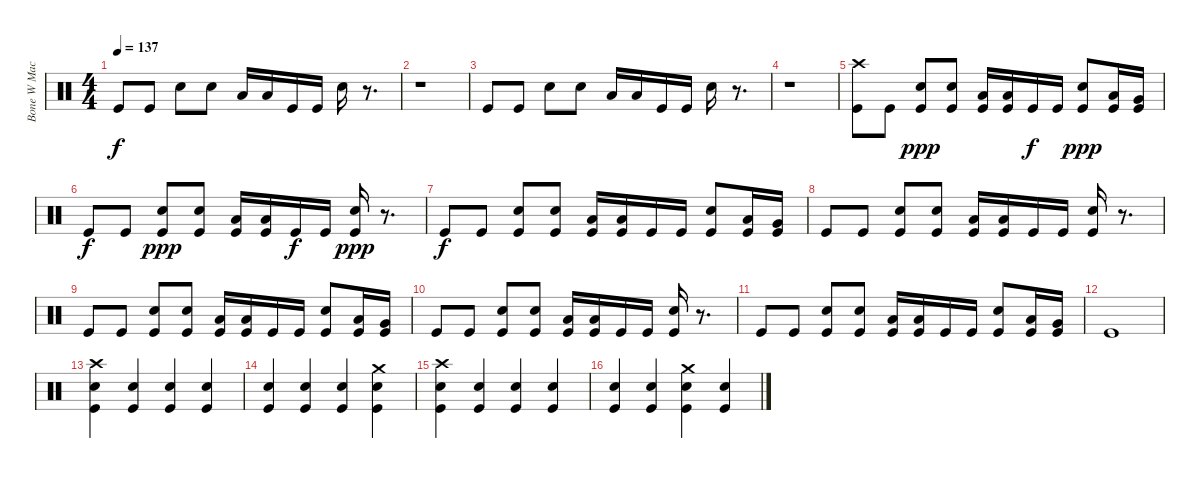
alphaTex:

\track ("Bone W Machine Drums" "Bone W Mac") {instrument percussion}
\staff {score}
\articulation defaults
\ts (4 4)
\tempo 137
\clef neutral
\ks c "Kick (hit)".8{dy f} "Kick (hit)".8 "Snare (hit) 2".8 "Snare (hit) 2".8 "Low Tom (hit)".16 "Low Tom (hit)".16 "Kick (hit)".16 "Kick (hit)".16 "Snare (hit) 2".16
r.8{d} |
r.1 |
"Kick (hit)".8 "Kick (hit)".8 "Snare (hit) 2".8 "Snare (hit) 2".8 "Low Tom (hit)".16 "Low Tom (hit)".16 "Kick (hit)".16 "Kick (hit)".16 "Snare (hit) 2".16 r.8{d} |
r.1 |
("Crash high (hit)" "Kick (hit)").8 "Kick (hit)".8 ("Snare (hit) 2" "Kick (hit)").8{dy ppp} ("Snare (hit) 2" "Kick (hit)").8 ("Low Tom (hit)" "Kick (hit)").16 ("Low Tom (hit)" "Kick (hit)").16 "Kick (hit)".16{dy f} "Kick (hit)".16 ("Snare (hit) 2" "Kick (hit)").8{dy ppp} ("Low Tom (hit)" "Kick (hit)").16 ("Very Low Tom (hit)" "Kick (hit)").16 |
"Kick (hit)".8{dy f} "Kick (hit)".8 ("Snare (hit) 2" "Kick (hit)").8{dy ppp} ("Snare (hit) 2" "Kick (hit)").8 ("Low Tom (hit)" "Kick (hit)").16 ("Low Tom (hit)" "Kick (hit)").16 "Kick (hit)".16{dy f} "Kick (hit)".16 ("Snare (hit) 2" "Kick (hit)").16{dy ppp} r.8{d} |
"Kick (hit)".8{dy f} "Kick (hit)".8 ("Snare (hit) 2" "Kick (hit)").8 ("Snare (hit) 2" "Kick (hit)").8 ("Low Tom (hit)" "Kick (hit)").16 ("Low Tom (hit)" "Kick (hit)").16 "Kick (hit)".16 "Kick (hit)".16 ("Snare (hit) 2" "Kick (hit)").8 ("Low Tom (hit)" "Kick (hit)").16 ("Very Low Tom (hit)" "Kick (hit)").16 |
"Kick (hit)".8 "Kick (hit)".8 ("Snare (hit) 2" "Kick (hit)").8 ("Snare (hit) 2" "Kick (hit)").8 ("Low Tom (hit)" "Kick (hit)").16 ("Low Tom (hit)" "Kick (hit)").16 "Kick (hit)".16 "Kick (hit)".16 ("Snare (hit) 2" "Kick (hit)").16 r.8{d} |
"Kick (hit)".8 "Kick (hit)".8 ("Snare (hit) 2" "Kick (hit)").8 ("Snare (hit) 2" "Kick (hit)").8 ("Low Tom (hit)" "Kick (hit)").16 ("Low Tom (hit)" "Kick (hit)").16 "Kick (hit)".16 "Kick (hit)".16 ("Snare (hit) 2" "Kick (hit)").8 ("Low Tom (hit)" "Kick (hit)").16 ("Very Low Tom (hit)" "Kick (hit)").16 |
"Kick (hit)".8 "Kick (hit)".8 ("Snare (hit) 2" "Kick (hit)").8 ("Snare (hit) 2" "Kick (hit)").8 ("Low Tom (hit)" "Kick (hit)").16 ("Low Tom (hit)" "Kick (hit)").16 "Kick (hit)".16 "Kick (hit)".16 ("Snare (hit) 2" "Kick (hit)").16 r.8{d} |
"Kick (hit)".8 "Kick (hit)".8 ("Snare (hit) 2" "Kick (hit)").8 ("Snare (hit) 2" "Kick (hit)").8 ("Low Tom (hit)" "Kick (hit)").16 ("Low Tom (hit)" "Kick (hit)").16 "Kick (hit)".16 "Kick (hit)".16 ("Snare (hit) 2" "Kick (hit)").8 ("Low Tom (hit)" "Kick (hit)").16 ("Very Low Tom (hit)" "Kick (hit)").16 |
"Kick (hit)".1 |
("Crash high (hit)" "Snare (hit) 2" "Kick (hit)").4 ("Snare (hit) 2" "Kick (hit)").4 ("Snare (hit) 2" "Kick (hit)").4 ("Snare (hit) 2" "Kick (hit)").4 |
("Snare (hit) 2" "Kick (hit)").4 ("Snare (hit) 2" "Kick (hit)").4 ("Snare (hit) 2" "Kick (hit)").4 ("Crash medium (hit)" "Snare (hit) 2" "Kick (hit)").4 |
("Crash high (hit)" "Snare (hit) 2" "Kick (hit)").4 ("Snare (hit) 2" "Kick (hit)").4 ("Snare (hit) 2" "Kick (hit)").4 ("Snare (hit) 2" "Kick (hit)").4 |
("Snare (hit) 2" "Kick (hit)").4 ("Snare (hit) 2" "Kick (hit)").4 ("Crash medium (hit)" "Snare (hit) 2" "Kick (hit)").4 ("Snare (hit) 2" "Kick (hit)").4
